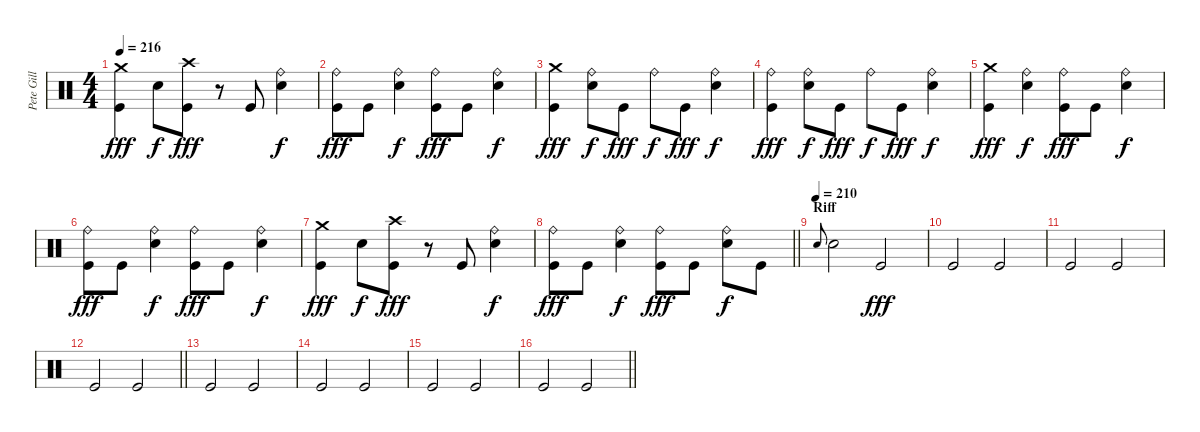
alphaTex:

\track ("Pete Gill" "Pete Gill") {instrument percussion}
\staff {score}
\articulation defaults
\ts (4 4)
\tempo 216
\clef neutral
\ks c
("Crash medium (hit)" "Kick (hit)").4{dy fff} "Electric Snare (hit)".8{dy f} ("Crash high (hit)" "Kick (hit)").8{dy fff} r.8 "Kick (hit)".8 ("Ride (bell)" "Electric Snare (hit)").4{dy f} |
("Ride (bell)" "Kick (hit)").8{dy fff} "Kick (hit)".8 ("Ride (bell)" "Electric Snare (hit)").4{dy f} ("Ride (bell)" "Kick (hit)").8{dy fff} "Kick (hit)".8 ("Ride (bell)" "Electric Snare (hit)").4{dy f} |
("Crash medium (hit)" "Kick (hit)").4{dy fff} ("Ride (bell)" "Electric Snare (hit)").8{dy f} "Kick (hit)".8{dy fff} "Ride (bell)".8{dy f} "Kick (hit)".8{dy fff} ("Ride (bell)" "Electric Snare (hit)").4{dy f} |
("Ride (bell)" "Kick (hit)").4{dy fff} ("Ride (bell)" "Electric Snare (hit)").8{dy f} "Kick (hit)".8{dy fff} "Ride (bell)".8{dy f} "Kick (hit)".8{dy fff} ("Ride (bell)" "Electric Snare (hit)").4{dy f} |
("Crash medium (hit)" "Kick (hit)").4{dy fff} ("Ride (bell)" "Electric Snare (hit)").4{dy f} ("Ride (bell)" "Kick (hit)").8{dy fff} "Kick (hit)".8 ("Ride (bell)" "Electric Snare (hit)").4{dy f} |
("Ride (bell)" "Kick (hit)").8{dy fff} "Kick (hit)".8 ("Ride (bell)" "Electric Snare (hit)").4{dy f} ("Ride (bell)" "Kick (hit)").8{dy fff} "Kick (hit)".8 ("Ride (bell)" "Electric Snare (hit)").4{dy f} |
("Crash medium (hit)" "Kick (hit)").4{dy fff} "Electric Snare (hit)".8{dy f} ("Crash high (hit)" "Kick (hit)").8{dy fff} r.8 "Kick (hit)".8 ("Ride (bell)" "Electric Snare (hit)").4{dy f} |
\barLineRight lightlight
("Ride (bell)" "Kick (hit)").8{dy fff} "Kick (hit)".8 ("Ride (bell)" "Electric Snare (hit)").4{dy f} ("Ride (bell)" "Kick (hit)").8{dy fff} "Kick (hit)".8 ("Ride (bell)" "Electric Snare (hit)").8{dy f} "Kick (hit)".8 |
\section ("" "Riff")
\tempo (210)
"Electric Snare (hit)".8{gr onbeat} "Electric Snare (hit)".2 "Kick (hit)".2{dy fff} |
"Kick (hit)".2 "Kick (hit)".2 |
"Kick (hit)".2 "Kick (hit)".2 |
\barLineRight lightlight "Kick (hit)".2 "Kick (hit)".2
|
"Kick (hit)".2 "Kick (hit)".2 |
"Kick (hit)".2 "Kick (hit)".2 |
"Kick (hit)".2 "Kick (hit)".2 |
\barLineRight lightlight "Kick (hit)".2 "Kick (hit)".2
